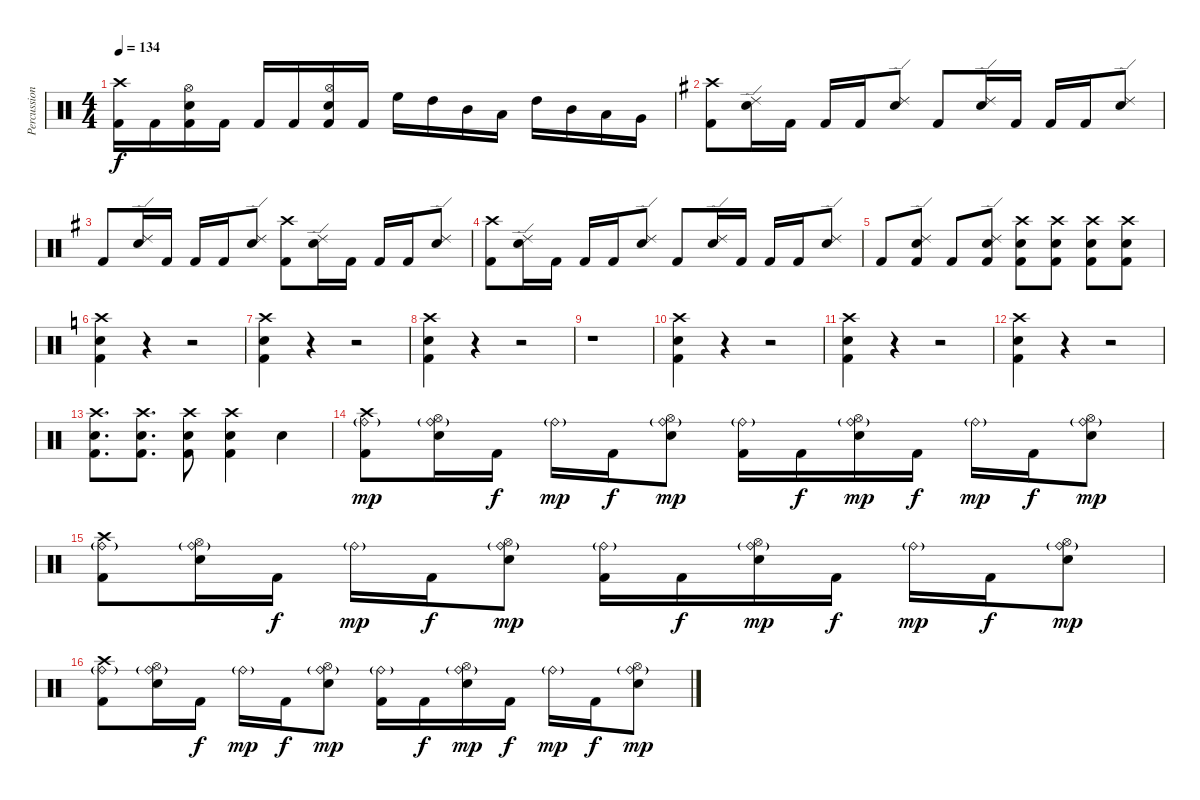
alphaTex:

\track ("Percussion" "Percussion") {instrument percussion}
\staff {score}
\articulation defaults
\ts (4 4)
\tempo 134
\clef neutral
\ks aminor
("Crash high (hit)" "Kick (hit) 2").16{dy f} "Kick (hit) 2".16 ("Hi-Hat (open)" "Electric Snare (hit)" "Kick (hit) 2").16 "Kick (hit) 2".16 "Kick (hit) 2".16 "Kick (hit) 2".16 ("Hi-Hat (open)" "Electric Snare (hit)" "Kick (hit) 2").16 "Kick (hit) 2".16 "High Floor Tom (hit)".16 "High Tom (hit)".16 "Mid Tom (hit)".16 "Low Tom (hit)".16 "High Tom (hit)".16 "Mid Tom (hit)".16 "Low Tom (hit)".16 "Very Low Tom (hit)".16 |
\ks eminor
("Crash high (hit)" "Kick (hit) 2").8 ("Ride (edge) 2" "Electric Snare (hit)").16 "Kick (hit) 2".16 "Kick (hit) 2".16 "Kick (hit) 2".16 ("Ride (edge) 2" "Electric Snare (hit)").8 "Kick (hit) 2".8 ("Ride (edge) 2" "Electric Snare (hit)").16 "Kick (hit) 2".16 "Kick (hit) 2".16 "Kick (hit) 2".16 ("Ride (edge) 2" "Electric Snare (hit)").8 |
"Kick (hit) 2".8 ("Ride (edge) 2" "Electric Snare (hit)").16 "Kick (hit) 2".16 "Kick (hit) 2".16 "Kick (hit) 2".16 ("Ride (edge) 2" "Electric Snare (hit)").8 ("Crash high (hit)" "Kick (hit) 2").8 ("Ride (edge) 2" "Electric Snare (hit)").16 "Kick (hit) 2".16 "Kick (hit) 2".16 "Kick (hit) 2".16 ("Ride (edge) 2" "Electric Snare (hit)").8 |
("Crash high (hit)" "Kick (hit) 2").8 ("Ride (edge) 2" "Electric Snare (hit)").16 "Kick (hit) 2".16 "Kick (hit) 2".16 "Kick (hit) 2".16 ("Ride (edge) 2" "Electric Snare (hit)").8 "Kick (hit) 2".8 ("Ride (edge) 2" "Electric Snare (hit)").16 "Kick (hit) 2".16 "Kick (hit) 2".16 "Kick (hit) 2".16 ("Ride (edge) 2" "Electric Snare (hit)").8 |
"Kick (hit) 2".8 ("Ride (edge) 2" "Electric Snare (hit)" "Kick (hit) 2").8 "Kick (hit) 2".8 ("Ride (edge) 2" "Electric Snare (hit)" "Kick (hit) 2").8 ("Crash high (hit)" "Electric Snare (hit)" "Kick (hit) 2").8 ("Crash high (hit)" "Electric Snare (hit)" "Kick (hit) 2").8 ("Crash high (hit)" "Electric Snare (hit)" "Kick (hit) 2").8 ("Crash high (hit)" "Electric Snare (hit)" "Kick (hit) 2").8 |
\ks aminor
("Crash high (hit)" "Electric Snare (hit)" "Kick (hit) 2").4 r.4 r.2 |
("Crash high (hit)" "Electric Snare (hit)" "Kick (hit) 2").4 r.4 r.2 |
("Crash high (hit)" "Electric Snare (hit)" "Kick (hit) 2").4 r.4 r.2 |
r.1 |
("Crash high (hit)" "Electric Snare (hit)" "Kick (hit) 2").4 r.4 r.2 |
("Crash high (hit)" "Electric Snare (hit)" "Kick (hit) 2").4 r.4 r.2 |
("Crash high (hit)" "Electric Snare (hit)" "Kick (hit) 2").4 r.4 r.2 |
("Crash high (hit)" "Electric Snare (hit)" "Kick (hit) 2").8{d} ("Crash high (hit)" "Electric Snare (hit)" "Kick (hit) 2").8{d} ("Crash high (hit)" "Electric Snare (hit)" "Kick (hit) 2").8 ("Crash high (hit)" "Electric Snare (hit)" "Kick (hit) 2").4 "Electric Snare (hit)".4 |
("Crash high (hit)" "Ride (bell)"{g} "Kick (hit) 2").8{dy mp} ("Hi-Hat (open)" "Ride (bell)"{g} "Electric Snare (hit)").16 "Kick (hit) 2".16{dy f} "Ride (bell)"{g}.16{dy mp} "Kick (hit) 2".16{dy f} ("Hi-Hat (open)" "Ride (bell)"{g} "Electric Snare (hit)").8{dy mp} ("Ride (bell)"{g} "Kick (hit) 2").16 "Kick (hit) 2".16{dy f} ("Hi-Hat (open)" "Ride (bell)"{g} "Electric Snare (hit)").16{dy mp} "Kick (hit) 2".16{dy f} "Ride (bell)"{g}.16{dy mp} "Kick (hit) 2".16{dy f} ("Hi-Hat (open)" "Ride (bell)"{g} "Electric Snare (hit)").8{dy mp} |
("Crash high (hit)" "Ride (bell)"{g} "Kick (hit) 2").8 ("Hi-Hat (open)" "Ride (bell)"{g} "Electric Snare (hit)").16 "Kick (hit) 2".16{dy f} "Ride (bell)"{g}.16{dy mp} "Kick (hit) 2".16{dy f} ("Hi-Hat (open)" "Ride (bell)"{g} "Electric Snare (hit)").8{dy mp} ("Ride (bell)"{g} "Kick (hit) 2").16 "Kick (hit) 2".16{dy f} ("Hi-Hat (open)" "Ride (bell)"{g} "Electric Snare (hit)").16{dy mp} "Kick (hit) 2".16{dy f} "Ride (bell)"{g}.16{dy mp} "Kick (hit) 2".16{dy f} ("Hi-Hat (open)" "Ride (bell)"{g} "Electric Snare (hit)").8{dy mp} |
("Crash high (hit)" "Ride (bell)"{g} "Kick (hit) 2").8 ("Hi-Hat (open)" "Ride (bell)"{g} "Electric Snare (hit)").16 "Kick (hit) 2".16{dy f} "Ride (bell)"{g}.16{dy mp} "Kick (hit) 2".16{dy f} ("Hi-Hat (open)" "Ride (bell)"{g} "Electric Snare (hit)").8{dy mp} ("Ride (bell)"{g} "Kick (hit) 2").16 "Kick (hit) 2".16{dy f} ("Hi-Hat (open)" "Ride (bell)"{g} "Electric Snare (hit)").16{dy mp} "Kick (hit) 2".16{dy f} "Ride (bell)"{g}.16{dy mp} "Kick (hit) 2".16{dy f} ("Hi-Hat (open)" "Ride (bell)"{g} "Electric Snare (hit)").8{dy mp}
